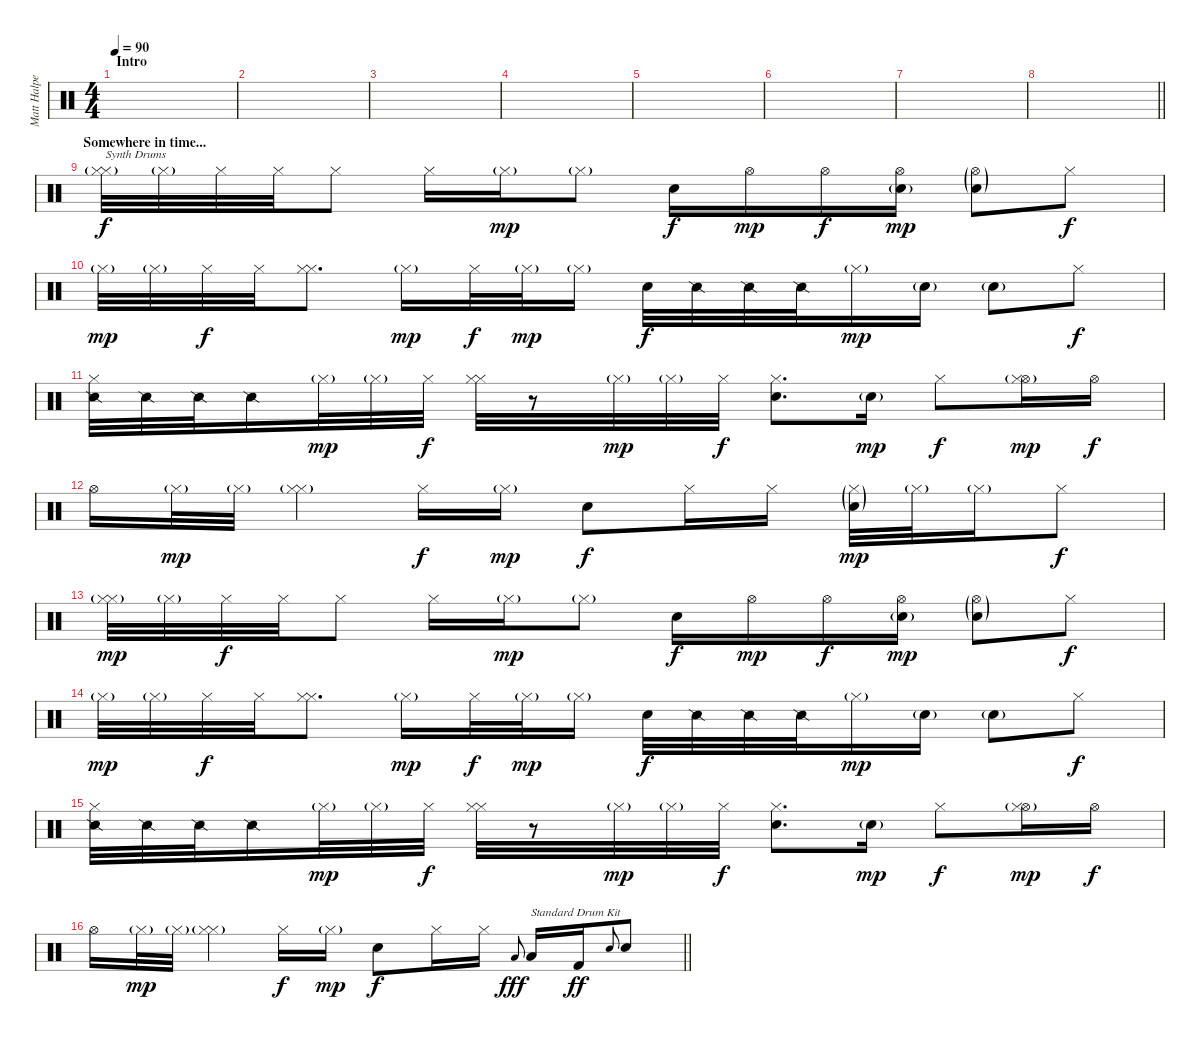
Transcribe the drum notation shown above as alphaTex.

\track ("Matt Halpern - Drums" "Matt Halpe") {instrument percussion}
\staff {score}
\articulation defaults
\ts (4 4)
\section ("" "Intro")
\tempo 90
\clef neutral
\ks c
|
|
|
|
|
|
|
\barLineRight lightlight
|
\section ("" "Somewhere in time...")
("Hi-Hat (closed)"{g} "Hi-Hat (closed)").32{txt "Synth Drums"} "Hi-Hat (closed)"{g}.32 "Hi-Hat (closed)".32{dy f} "Hi-Hat (closed)".32 "Hi-Hat (closed)".8 "Hi-Hat (closed)".16 "Hi-Hat (closed)"{g}.16{dy mp} "Hi-Hat (closed)"{g}.8 "Snare (hit) 2".16{dy f} "Hi-Hat (open)".16{dy mp} "Hi-Hat (open)".16{dy f} ("Hi-Hat (open)" "Snare (hit) 2"{g}).16{dy mp} ("Hi-Hat (open)"{g} "Snare (hit) 2"{g}).8 "Hi-Hat (closed)".8{dy f} |
"Hi-Hat (closed)"{g}.32{dy mp} "Hi-Hat (closed)"{g}.32 "Hi-Hat (closed)".32{dy f} "Hi-Hat (closed)".32 ("Hi-Hat (closed)" "Hi-Hat (closed)").8{d} "Hi-Hat (closed)"{g}.16{dy mp} "Hi-Hat (closed)".32{dy f} "Hi-Hat (closed)"{g}.32{dy mp} "Hi-Hat (closed)"{g}.16 "Snare (hit) 2".32{dy f} "Snare (side stick) 2".32 "Snare (side stick) 2".32 "Snare (side stick) 2".32 "Hi-Hat (closed)"{g}.16{dy mp} "Snare (hit) 2"{g}.16 "Snare (hit) 2"{g}.8 "Hi-Hat (closed)".8{dy f} |
("Snare (side stick) 2" "Hi-Hat (closed)").32 "Snare (side stick) 2".32 "Snare (side stick) 2".32 "Snare (side stick) 2".16 "Hi-Hat (closed)"{g}.32{dy mp} "Hi-Hat (closed)"{g}.32 "Hi-Hat (closed)".32{dy f} ("Hi-Hat (closed)" "Hi-Hat (closed)").32 r.8 "Hi-Hat (closed)"{g}.32{dy mp} "Hi-Hat (closed)"{g}.32 "Hi-Hat (closed)".32{dy f} ("Hi-Hat (closed)" "Snare (hit) 2").8{d} "Snare (hit) 2"{g}.16{dy mp} "Hi-Hat (closed)".8{dy f} ("Hi-Hat (open)"{g} "Hi-Hat (closed)").16{dy mp} "Hi-Hat (open)".16{dy f} |
"Hi-Hat (open)".16 "Hi-Hat (closed)"{g}.32{dy mp} "Hi-Hat (closed)"{g}.32 ("Hi-Hat (closed)"{g} "Hi-Hat (closed)").4 "Hi-Hat (closed)".16{dy f} "Hi-Hat (closed)"{g}.16{dy mp} "Snare (hit) 2".8{dy f} "Hi-Hat (closed)".16 "Hi-Hat (closed)".16 ("Hi-Hat (closed)"{g} "Snare (hit) 2"{g}).32{dy mp} "Hi-Hat (closed)"{g}.32 "Hi-Hat (closed)"{g}.16 "Hi-Hat (closed)".8{dy f} |
("Hi-Hat (closed)"{g} "Hi-Hat (closed)").32{dy mp} "Hi-Hat (closed)"{g}.32 "Hi-Hat (closed)".32{dy f} "Hi-Hat (closed)".32 "Hi-Hat (closed)".8 "Hi-Hat (closed)".16 "Hi-Hat (closed)"{g}.16{dy mp} "Hi-Hat (closed)"{g}.8 "Snare (hit) 2".16{dy f} "Hi-Hat (open)".16{dy mp} "Hi-Hat (open)".16{dy f} ("Hi-Hat (open)" "Snare (hit) 2"{g}).16{dy mp} ("Hi-Hat (open)"{g} "Snare (hit) 2"{g}).8 "Hi-Hat (closed)".8{dy f} |
"Hi-Hat (closed)"{g}.32{dy mp} "Hi-Hat (closed)"{g}.32 "Hi-Hat (closed)".32{dy f} "Hi-Hat (closed)".32 ("Hi-Hat (closed)" "Hi-Hat (closed)").8{d} "Hi-Hat (closed)"{g}.16{dy mp} "Hi-Hat (closed)".32{dy f} "Hi-Hat (closed)"{g}.32{dy mp} "Hi-Hat (closed)"{g}.16 "Snare (hit) 2".32{dy f} "Snare (side stick) 2".32 "Snare (side stick) 2".32 "Snare (side stick) 2".32 "Hi-Hat (closed)"{g}.16{dy mp} "Snare (hit) 2"{g}.16 "Snare (hit) 2"{g}.8 "Hi-Hat (closed)".8{dy f} |
("Snare (side stick) 2" "Hi-Hat (closed)").32 "Snare (side stick) 2".32 "Snare (side stick) 2".32 "Snare (side stick) 2".16 "Hi-Hat (closed)"{g}.32{dy mp} "Hi-Hat (closed)"{g}.32 "Hi-Hat (closed)".32{dy f} ("Hi-Hat (closed)" "Hi-Hat (closed)").32 r.8 "Hi-Hat (closed)"{g}.32{dy mp} "Hi-Hat (closed)"{g}.32 "Hi-Hat (closed)".32{dy f} ("Hi-Hat (closed)" "Snare (hit) 2").8{d} "Snare (hit) 2"{g}.16{dy mp} "Hi-Hat (closed)".8{dy f} ("Hi-Hat (open)"{g} "Hi-Hat (closed)").16{dy mp} "Hi-Hat (open)".16{dy f} |
\barLineRight lightlight "Hi-Hat (open)".16 "Hi-Hat (closed)"{g}.32{dy mp} "Hi-Hat (closed)"{g}.32
("Hi-Hat (closed)"{g} "Hi-Hat (closed)").4 "Hi-Hat (closed)".16{dy f} "Hi-Hat (closed)"{g}.16{dy mp} "Snare (hit) 2".8{dy f} "Hi-Hat (closed)".16 "Hi-Hat (closed)".16 "Low Floor Tom (hit)".8{gr onbeat dy fff} "Low Floor Tom (hit)".16{txt "Standard Drum Kit"} "Kick (hit) 2".16{dy ff} "Electric Snare (hit)".8{gr onbeat} "Electric Snare (hit)".8
